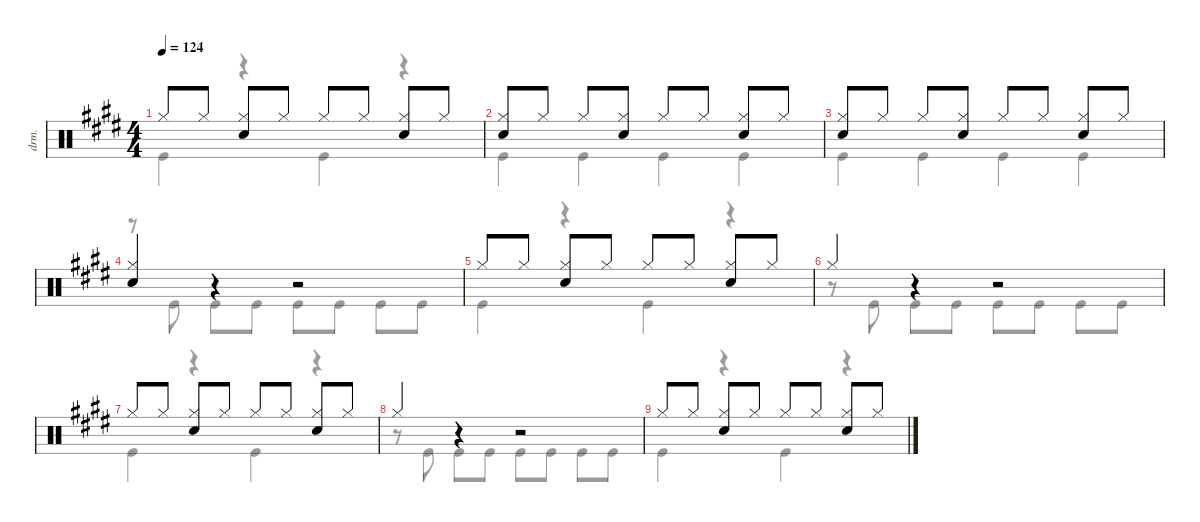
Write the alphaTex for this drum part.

\defaultSystemsLayout 4
\hideDynamics
\bracketExtendMode nobrackets
\track ("Drums" "drm.") {instrument percussion}
\staff {score}
\articulation defaults
\voice
\ts (4 4)
\tempo 124
\clef neutral
\ks e "Hi-Hat (closed)"{acc forcenatural}.8{dy f} "Hi-Hat (closed)"{acc forcenatural}.8
("Hi-Hat (closed)"{acc forcenatural} "Snare (hit) 2"{acc forcenatural}).8 "Hi-Hat (closed)"{acc forcenatural}.8 "Hi-Hat (closed)"{acc forcenatural}.8 "Hi-Hat (closed)"{acc forcenatural}.8 ("Hi-Hat (closed)"{acc forcenatural} "Snare (hit) 2"{acc forcenatural}).8 "Hi-Hat (closed)"{acc forcenatural}.8 |
("Hi-Hat (closed)"{acc forcenatural} "Snare (hit) 2"{acc forcenatural}).8 "Hi-Hat (closed)"{acc forcenatural}.8 "Hi-Hat (closed)"{acc forcenatural}.8 ("Hi-Hat (closed)"{acc forcenatural} "Snare (hit) 2"{acc forcenatural}).8 "Hi-Hat (closed)"{acc forcenatural}.8 "Hi-Hat (closed)"{acc forcenatural}.8 ("Hi-Hat (closed)"{acc forcenatural} "Snare (hit) 2"{acc forcenatural}).8 "Hi-Hat (closed)"{acc forcenatural}.8 |
("Hi-Hat (closed)"{acc forcenatural} "Snare (hit) 2"{acc forcenatural}).8 "Hi-Hat (closed)"{acc forcenatural}.8 "Hi-Hat (closed)"{acc forcenatural}.8 ("Hi-Hat (closed)"{acc forcenatural} "Snare (hit) 2"{acc forcenatural}).8 "Hi-Hat (closed)"{acc forcenatural}.8 "Hi-Hat (closed)"{acc forcenatural}.8 ("Hi-Hat (closed)"{acc forcenatural} "Snare (hit) 2"{acc forcenatural}).8 "Hi-Hat (closed)"{acc forcenatural}.8 |
("Hi-Hat (closed)"{acc forcenatural} "Snare (hit) 2"{acc forcenatural}).4 r.4 r.2 |
"Hi-Hat (closed)"{acc forcenatural}.8 "Hi-Hat (closed)"{acc forcenatural}.8 ("Hi-Hat (closed)"{acc forcenatural} "Snare (hit) 2"{acc forcenatural}).8 "Hi-Hat (closed)"{acc forcenatural}.8 "Hi-Hat (closed)"{acc forcenatural}.8 "Hi-Hat (closed)"{acc forcenatural}.8 ("Hi-Hat (closed)"{acc forcenatural} "Snare (hit) 2"{acc forcenatural}).8 "Hi-Hat (closed)"{acc forcenatural}.8 |
"Hi-Hat (closed)"{acc forcenatural}.4 r.4 r.2 |
"Hi-Hat (closed)"{acc forcenatural}.8 "Hi-Hat (closed)"{acc forcenatural}.8 ("Hi-Hat (closed)"{acc forcenatural} "Snare (hit) 2"{acc forcenatural}).8 "Hi-Hat (closed)"{acc forcenatural}.8 "Hi-Hat (closed)"{acc forcenatural}.8 "Hi-Hat (closed)"{acc forcenatural}.8 ("Hi-Hat (closed)"{acc forcenatural} "Snare (hit) 2"{acc forcenatural}).8 "Hi-Hat (closed)"{acc forcenatural}.8 |
"Hi-Hat (closed)"{acc forcenatural}.4 r.4 r.2 |
"Hi-Hat (closed)"{acc forcenatural}.8 "Hi-Hat (closed)"{acc forcenatural}.8 ("Hi-Hat (closed)"{acc forcenatural} "Snare (hit) 2"{acc forcenatural}).8 "Hi-Hat (closed)"{acc forcenatural}.8 "Hi-Hat (closed)"{acc forcenatural}.8 "Hi-Hat (closed)"{acc forcenatural}.8 ("Hi-Hat (closed)"{acc forcenatural} "Snare (hit) 2"{acc forcenatural}).8 "Hi-Hat (closed)"{acc forcenatural}.8
\voice
\clef neutral
\ottava regular
\simile none
\ks e "Kick (hit)"{acc forcenatural}.4{dy fff}
r.4 "Kick (hit)"{acc forcenatural}.4 r.4 |
"Kick (hit)"{acc forcenatural}.4 "Kick (hit)"{acc forcenatural}.4 "Kick (hit)"{acc forcenatural}.4 "Kick (hit)"{acc forcenatural}.4 |
"Kick (hit)"{acc forcenatural}.4 "Kick (hit)"{acc forcenatural}.4 "Kick (hit)"{acc forcenatural}.4 "Kick (hit)"{acc forcenatural}.4 |
r.8 "Kick (hit)"{acc forcenatural}.8 "Kick (hit)"{acc forcenatural}.8 "Kick (hit)"{acc forcenatural}.8 "Kick (hit)"{acc forcenatural}.8 "Kick (hit)"{acc forcenatural}.8 "Kick (hit)"{acc forcenatural}.8 "Kick (hit)"{acc forcenatural}.8 |
"Kick (hit)"{acc forcenatural}.4 r.4 "Kick (hit)"{acc forcenatural}.4 r.4 |
r.8 "Kick (hit)"{acc forcenatural}.8 "Kick (hit)"{acc forcenatural}.8 "Kick (hit)"{acc forcenatural}.8 "Kick (hit)"{acc forcenatural}.8 "Kick (hit)"{acc forcenatural}.8 "Kick (hit)"{acc forcenatural}.8 "Kick (hit)"{acc forcenatural}.8 |
"Kick (hit)"{acc forcenatural}.4 r.4 "Kick (hit)"{acc forcenatural}.4 r.4 |
r.8 "Kick (hit)"{acc forcenatural}.8 "Kick (hit)"{acc forcenatural}.8 "Kick (hit)"{acc forcenatural}.8 "Kick (hit)"{acc forcenatural}.8 "Kick (hit)"{acc forcenatural}.8 "Kick (hit)"{acc forcenatural}.8 "Kick (hit)"{acc forcenatural}.8 |
"Kick (hit)"{acc forcenatural}.4 r.4 "Kick (hit)"{acc forcenatural}.4 r.4
